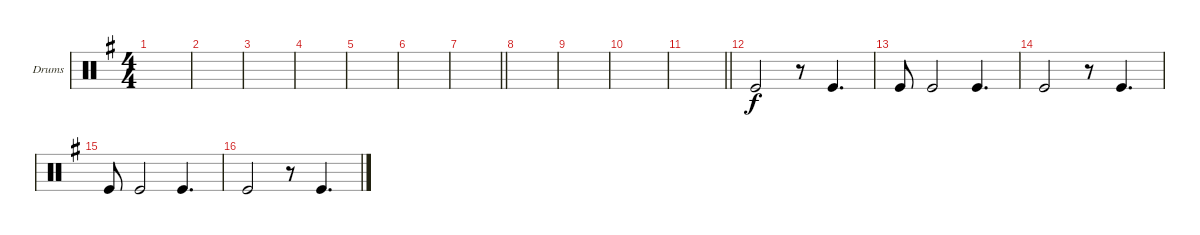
\defaultSystemsLayout 4
\bracketExtendMode groupsimilarinstruments
\firstSystemTrackNameOrientation horizontal
\otherSystemsTrackNameOrientation horizontal
\track ("Drums" "Drums") {instrument percussion}
\staff {score}
\articulation defaults
\ts (4 4)
\scale
0.472
\tempo (70 hide)
\accidentals auto
\clef neutral
\ottava regular
\simile none
\ks eminor
|
\scale
0.528 |
\scale
0.5 |
\scale
0.5 |
\scale
0.611111 |
\scale
0.388889 |
\scale
0.457143
\tempo (40 0.5 hide)
\tempo (81.0588 1 hide)
\barLineRight lightlight
|
\scale
0.543145 |
\scale
0.537143 |
\scale
0.462963 |
\barLineRight lightlight
|
"Kick (hit)".2 r.8 "Kick (hit)".4{d} |
"Kick (hit)".8 "Kick (hit)".2 "Kick (hit)".4{d} |
"Kick (hit)".2 r.8 "Kick (hit)".4{d} |
"Kick (hit)".8 "Kick (hit)".2 "Kick (hit)".4{d} |
"Kick (hit)".2 r.8 "Kick (hit)".4{d}
